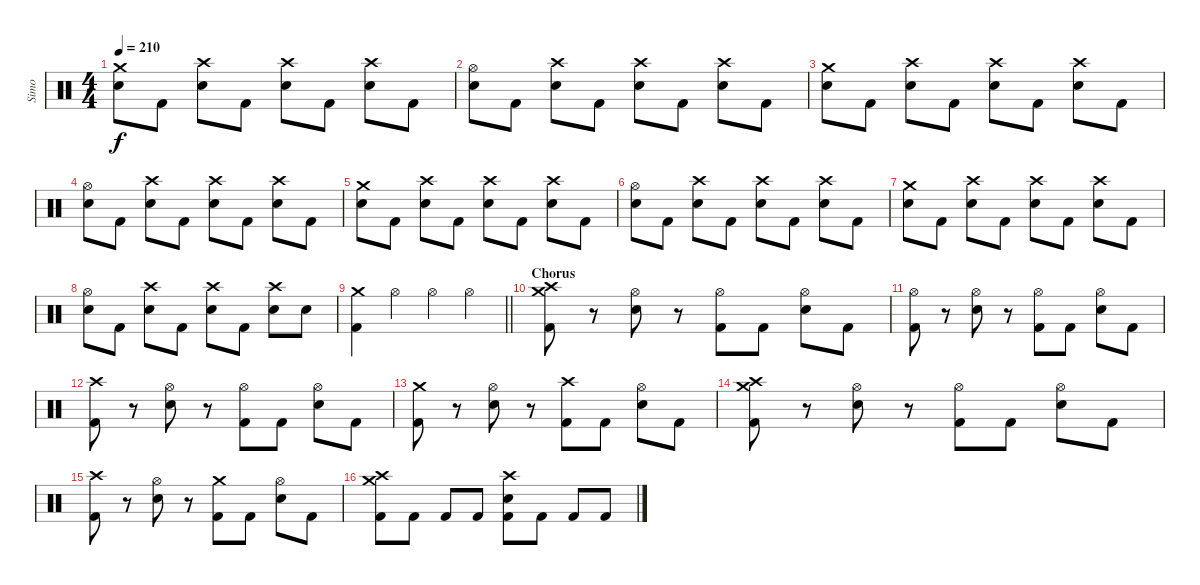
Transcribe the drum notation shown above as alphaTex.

\track ("Simo" "Simo") {instrument percussion bank 121}
\staff {score}
\articulation defaults
\ts (4 4)
\tempo 210
\clef neutral
\ks c
("Electric Snare (hit)" "Crash medium (hit)").8{dy f} "Kick (hit) 2".8 ("Electric Snare (hit)" "Crash high (hit)").8 "Kick (hit) 2".8 ("Electric Snare (hit)" "Crash high (hit)").8 "Kick (hit) 2".8 ("Electric Snare (hit)" "Crash high (hit)").8 "Kick (hit) 2".8 |
("Electric Snare (hit)" "Hi-Hat (open)").8 "Kick (hit) 2".8 ("Electric Snare (hit)" "Crash high (hit)").8 "Kick (hit) 2".8 ("Electric Snare (hit)" "Crash high (hit)").8 "Kick (hit) 2".8 ("Electric Snare (hit)" "Crash high (hit)").8 "Kick (hit) 2".8 |
("Electric Snare (hit)" "Crash medium (hit)").8 "Kick (hit) 2".8 ("Electric Snare (hit)" "Crash high (hit)").8 "Kick (hit) 2".8 ("Electric Snare (hit)" "Crash high (hit)").8 "Kick (hit) 2".8 ("Electric Snare (hit)" "Crash high (hit)").8 "Kick (hit) 2".8 |
("Electric Snare (hit)" "Hi-Hat (open)").8 "Kick (hit) 2".8 ("Electric Snare (hit)" "Crash high (hit)").8 "Kick (hit) 2".8 ("Electric Snare (hit)" "Crash high (hit)").8 "Kick (hit) 2".8 ("Electric Snare (hit)" "Crash high (hit)").8 "Kick (hit) 2".8 |
("Electric Snare (hit)" "Crash medium (hit)").8 "Kick (hit) 2".8 ("Electric Snare (hit)" "Crash high (hit)").8 "Kick (hit) 2".8 ("Electric Snare (hit)" "Crash high (hit)").8 "Kick (hit) 2".8 ("Electric Snare (hit)" "Crash high (hit)").8 "Kick (hit) 2".8 |
("Electric Snare (hit)" "Hi-Hat (open)").8 "Kick (hit) 2".8 ("Electric Snare (hit)" "Crash high (hit)").8 "Kick (hit) 2".8 ("Electric Snare (hit)" "Crash high (hit)").8 "Kick (hit) 2".8 ("Electric Snare (hit)" "Crash high (hit)").8 "Kick (hit) 2".8 |
("Electric Snare (hit)" "Crash medium (hit)").8 "Kick (hit) 2".8 ("Electric Snare (hit)" "Crash high (hit)").8 "Kick (hit) 2".8 ("Electric Snare (hit)" "Crash high (hit)").8 "Kick (hit) 2".8 ("Electric Snare (hit)" "Crash high (hit)").8 "Kick (hit) 2".8 |
("Electric Snare (hit)" "Hi-Hat (open)").8 "Kick (hit) 2".8 ("Electric Snare (hit)" "Crash high (hit)").8 "Kick (hit) 2".8 ("Electric Snare (hit)" "Crash high (hit)").8 "Kick (hit) 2".8 ("Electric Snare (hit)" "Crash high (hit)").8 "Electric Snare (hit)".8 |
\barLineRight lightlight
("Kick (hit) 2" "Crash medium (hit)").4 "Hi-Hat (open)".4 "Hi-Hat (open)".4 "Hi-Hat (open)".4 |
\section ("" "Chorus")
("Kick (hit) 2" "Crash high (hit)" "Crash medium (hit)").8 r.8 ("Electric Snare (hit)" "Hi-Hat (open)").8 r.8 ("Kick (hit) 2" "Hi-Hat (open)").8 "Kick (hit) 2".8 ("Electric Snare (hit)" "Hi-Hat (open)").8 "Kick (hit) 2".8 |
("Kick (hit) 2" "Hi-Hat (open)").8 r.8 ("Electric Snare (hit)" "Hi-Hat (open)").8 r.8 ("Kick (hit) 2" "Hi-Hat (open)").8 "Kick (hit) 2".8 ("Electric Snare (hit)" "Hi-Hat (open)").8 "Kick (hit) 2".8 |
("Kick (hit) 2" "Crash high (hit)").8 r.8 ("Electric Snare (hit)" "Hi-Hat (open)").8 r.8 ("Kick (hit) 2" "Hi-Hat (open)").8 "Kick (hit) 2".8 ("Electric Snare (hit)" "Hi-Hat (open)").8 "Kick (hit) 2".8 |
("Kick (hit) 2" "Crash medium (hit)").8 r.8 ("Electric Snare (hit)" "Hi-Hat (open)").8 r.8 ("Kick (hit) 2" "Crash high (hit)").8 "Kick (hit) 2".8 ("Electric Snare (hit)" "Hi-Hat (open)").8 "Kick (hit) 2".8 |
("Kick (hit) 2" "Crash high (hit)" "Crash medium (hit)").8 r.8 ("Electric Snare (hit)" "Hi-Hat (open)").8 r.8 ("Kick (hit) 2" "Hi-Hat (open)").8 "Kick (hit) 2".8 ("Electric Snare (hit)" "Hi-Hat (open)").8 "Kick (hit) 2".8 |
("Kick (hit) 2" "Crash high (hit)").8 r.8 ("Electric Snare (hit)" "Hi-Hat (open)").8 r.8 ("Kick (hit) 2" "Crash medium (hit)").8 "Kick (hit) 2".8 ("Electric Snare (hit)" "Hi-Hat (open)").8 "Kick (hit) 2".8 |
("Kick (hit) 2" "Crash medium (hit)" "Crash high (hit)").8 "Kick (hit) 2".8 "Kick (hit) 2".8 "Kick (hit) 2".8 ("Kick (hit) 2" "Crash high (hit)" "Electric Snare (hit)").8 "Kick (hit) 2".8 "Kick (hit) 2".8 "Kick (hit) 2".8
